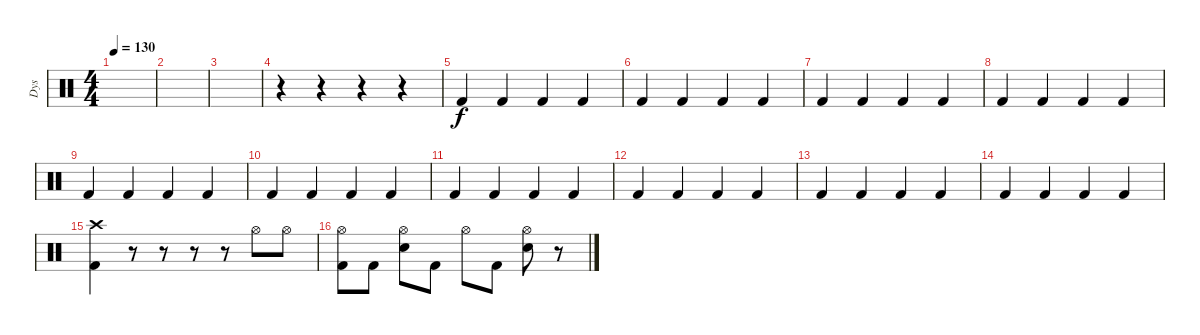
\track ("Dys" "Dys") {instrument percussion}
\staff {score}
\articulation defaults
\ts (4 4)
\tempo 130
\clef neutral
\ks c
|
|
|
r.4 r.4 r.4 r.4 |
"Kick (hit) 2".4 "Kick (hit) 2".4 "Kick (hit) 2".4 "Kick (hit) 2".4 |
"Kick (hit) 2".4 "Kick (hit) 2".4 "Kick (hit) 2".4 "Kick (hit) 2".4 |
"Kick (hit) 2".4 "Kick (hit) 2".4 "Kick (hit) 2".4 "Kick (hit) 2".4 |
"Kick (hit) 2".4 "Kick (hit) 2".4 "Kick (hit) 2".4 "Kick (hit) 2".4 |
"Kick (hit) 2".4 "Kick (hit) 2".4 "Kick (hit) 2".4 "Kick (hit) 2".4 |
"Kick (hit) 2".4 "Kick (hit) 2".4 "Kick (hit) 2".4 "Kick (hit) 2".4 |
"Kick (hit) 2".4 "Kick (hit) 2".4 "Kick (hit) 2".4 "Kick (hit) 2".4 |
"Kick (hit) 2".4 "Kick (hit) 2".4 "Kick (hit) 2".4 "Kick (hit) 2".4 |
"Kick (hit) 2".4 "Kick (hit) 2".4 "Kick (hit) 2".4 "Kick (hit) 2".4 |
"Kick (hit) 2".4 "Kick (hit) 2".4 "Kick (hit) 2".4 "Kick (hit) 2".4 |
("Crash high (hit)" "Kick (hit) 2").4 r.8 r.8 r.8 r.8 "Hi-Hat (open)".8 "Hi-Hat (open)".8 |
("Hi-Hat (open)" "Kick (hit) 2").8 "Kick (hit) 2".8 ("Hi-Hat (open)" "Electric Snare (hit)").8 "Kick (hit) 2".8 "Hi-Hat (open)".8 "Kick (hit) 2".8 ("Hi-Hat (open)" "Electric Snare (hit)").8 r.8
